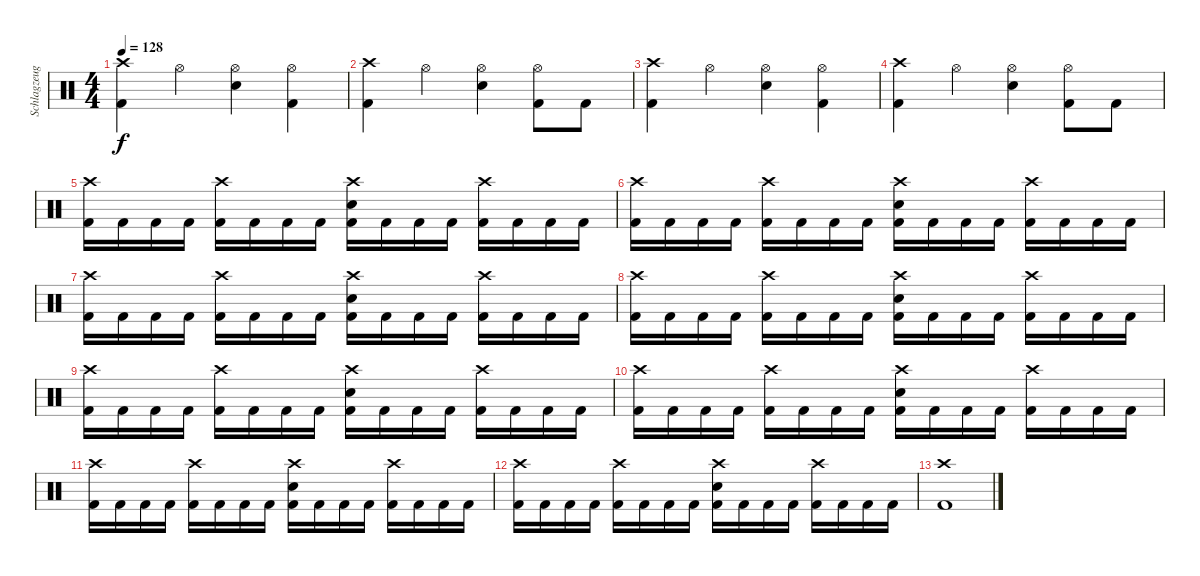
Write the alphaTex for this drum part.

\track ("Schlagzeug" "Schlagzeug") {instrument percussion}
\staff {score}
\articulation defaults
\ts (4 4)
\tempo 128
\clef neutral
\ks c
("Crash high (hit)" "Kick (hit) 2").4{dy f} "Hi-Hat (open)".4 ("Hi-Hat (open)" "Snare (hit) 2").4 ("Hi-Hat (open)" "Kick (hit) 2").4 |
("Crash high (hit)" "Kick (hit) 2").4 "Hi-Hat (open)".4 ("Hi-Hat (open)" "Snare (hit) 2").4 ("Hi-Hat (open)" "Kick (hit) 2").8 "Kick (hit) 2".8 |
("Crash high (hit)" "Kick (hit) 2").4 "Hi-Hat (open)".4 ("Hi-Hat (open)" "Snare (hit) 2").4 ("Hi-Hat (open)" "Kick (hit) 2").4 |
("Crash high (hit)" "Kick (hit) 2").4 "Hi-Hat (open)".4 ("Hi-Hat (open)" "Snare (hit) 2").4 ("Hi-Hat (open)" "Kick (hit) 2").8 "Kick (hit) 2".8 |
("Crash high (hit)" "Kick (hit) 2").16 "Kick (hit) 2".16 "Kick (hit) 2".16 "Kick (hit) 2".16 ("Crash high (hit)" "Kick (hit) 2").16 "Kick (hit) 2".16 "Kick (hit) 2".16 "Kick (hit) 2".16 ("Crash high (hit)" "Snare (hit) 2" "Kick (hit) 2").16 "Kick (hit) 2".16 "Kick (hit) 2".16 "Kick (hit) 2".16 ("Crash high (hit)" "Kick (hit) 2").16 "Kick (hit) 2".16 "Kick (hit) 2".16 "Kick (hit) 2".16 |
("Crash high (hit)" "Kick (hit) 2").16 "Kick (hit) 2".16 "Kick (hit) 2".16 "Kick (hit) 2".16 ("Crash high (hit)" "Kick (hit) 2").16 "Kick (hit) 2".16 "Kick (hit) 2".16 "Kick (hit) 2".16 ("Crash high (hit)" "Snare (hit) 2" "Kick (hit) 2").16 "Kick (hit) 2".16 "Kick (hit) 2".16 "Kick (hit) 2".16 ("Crash high (hit)" "Kick (hit) 2").16 "Kick (hit) 2".16 "Kick (hit) 2".16 "Kick (hit) 2".16 |
("Crash high (hit)" "Kick (hit) 2").16 "Kick (hit) 2".16 "Kick (hit) 2".16 "Kick (hit) 2".16 ("Crash high (hit)" "Kick (hit) 2").16 "Kick (hit) 2".16 "Kick (hit) 2".16 "Kick (hit) 2".16 ("Crash high (hit)" "Snare (hit) 2" "Kick (hit) 2").16 "Kick (hit) 2".16 "Kick (hit) 2".16 "Kick (hit) 2".16 ("Crash high (hit)" "Kick (hit) 2").16 "Kick (hit) 2".16 "Kick (hit) 2".16 "Kick (hit) 2".16 |
("Crash high (hit)" "Kick (hit) 2").16 "Kick (hit) 2".16 "Kick (hit) 2".16 "Kick (hit) 2".16 ("Crash high (hit)" "Kick (hit) 2").16 "Kick (hit) 2".16 "Kick (hit) 2".16 "Kick (hit) 2".16 ("Crash high (hit)" "Snare (hit) 2" "Kick (hit) 2").16 "Kick (hit) 2".16 "Kick (hit) 2".16 "Kick (hit) 2".16 ("Crash high (hit)" "Kick (hit) 2").16 "Kick (hit) 2".16 "Kick (hit) 2".16 "Kick (hit) 2".16 |
("Crash high (hit)" "Kick (hit) 2").16 "Kick (hit) 2".16 "Kick (hit) 2".16 "Kick (hit) 2".16 ("Crash high (hit)" "Kick (hit) 2").16 "Kick (hit) 2".16 "Kick (hit) 2".16 "Kick (hit) 2".16 ("Crash high (hit)" "Snare (hit) 2" "Kick (hit) 2").16 "Kick (hit) 2".16 "Kick (hit) 2".16 "Kick (hit) 2".16 ("Crash high (hit)" "Kick (hit) 2").16 "Kick (hit) 2".16 "Kick (hit) 2".16 "Kick (hit) 2".16 |
("Crash high (hit)" "Kick (hit) 2").16 "Kick (hit) 2".16 "Kick (hit) 2".16 "Kick (hit) 2".16 ("Crash high (hit)" "Kick (hit) 2").16 "Kick (hit) 2".16 "Kick (hit) 2".16 "Kick (hit) 2".16 ("Crash high (hit)" "Snare (hit) 2" "Kick (hit) 2").16 "Kick (hit) 2".16 "Kick (hit) 2".16 "Kick (hit) 2".16 ("Crash high (hit)" "Kick (hit) 2").16 "Kick (hit) 2".16 "Kick (hit) 2".16 "Kick (hit) 2".16 |
("Crash high (hit)" "Kick (hit) 2").16 "Kick (hit) 2".16 "Kick (hit) 2".16 "Kick (hit) 2".16 ("Crash high (hit)" "Kick (hit) 2").16 "Kick (hit) 2".16 "Kick (hit) 2".16 "Kick (hit) 2".16 ("Crash high (hit)" "Snare (hit) 2" "Kick (hit) 2").16 "Kick (hit) 2".16 "Kick (hit) 2".16 "Kick (hit) 2".16 ("Crash high (hit)" "Kick (hit) 2").16 "Kick (hit) 2".16 "Kick (hit) 2".16 "Kick (hit) 2".16 |
("Crash high (hit)" "Kick (hit) 2").16 "Kick (hit) 2".16 "Kick (hit) 2".16 "Kick (hit) 2".16 ("Crash high (hit)" "Kick (hit) 2").16 "Kick (hit) 2".16 "Kick (hit) 2".16 "Kick (hit) 2".16 ("Crash high (hit)" "Snare (hit) 2" "Kick (hit) 2").16 "Kick (hit) 2".16 "Kick (hit) 2".16 "Kick (hit) 2".16 ("Crash high (hit)" "Kick (hit) 2").16 "Kick (hit) 2".16 "Kick (hit) 2".16 "Kick (hit) 2".16 |
("Crash high (hit)" "Kick (hit) 2").1
